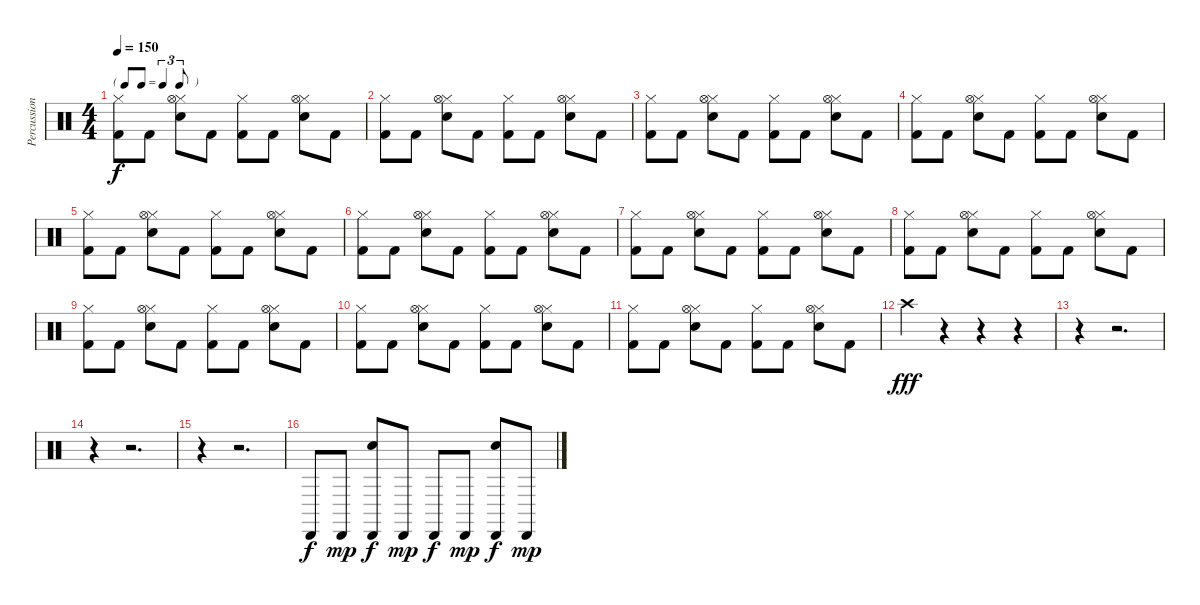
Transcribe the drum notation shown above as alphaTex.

\track ("Percussion" "Percussion") {instrument percussion}
\staff {score}
\articulation defaults
\ts (4 4)
\tf triplet8th
\tempo 150
\clef neutral
\ks c
("Hi-Hat (closed)" "Kick (hit) 2").8{dy f} "Kick (hit) 2".8 ("Hi-Hat (closed)" "Snare (hit) 2" "Hi-Hat (open)").8 "Kick (hit) 2".8 ("Hi-Hat (closed)" "Kick (hit) 2").8 "Kick (hit) 2".8 ("Hi-Hat (closed)" "Snare (hit) 2" "Hi-Hat (open)").8 "Kick (hit) 2".8 |
("Hi-Hat (closed)" "Kick (hit) 2").8 "Kick (hit) 2".8 ("Hi-Hat (closed)" "Snare (hit) 2" "Hi-Hat (open)").8 "Kick (hit) 2".8 ("Hi-Hat (closed)" "Kick (hit) 2").8 "Kick (hit) 2".8 ("Hi-Hat (closed)" "Snare (hit) 2" "Hi-Hat (open)").8 "Kick (hit) 2".8 |
("Hi-Hat (closed)" "Kick (hit) 2").8 "Kick (hit) 2".8 ("Hi-Hat (closed)" "Snare (hit) 2" "Hi-Hat (open)").8 "Kick (hit) 2".8 ("Hi-Hat (closed)" "Kick (hit) 2").8 "Kick (hit) 2".8 ("Hi-Hat (closed)" "Snare (hit) 2" "Hi-Hat (open)").8 "Kick (hit) 2".8 |
("Hi-Hat (closed)" "Kick (hit) 2").8 "Kick (hit) 2".8 ("Hi-Hat (closed)" "Snare (hit) 2" "Hi-Hat (open)").8 "Kick (hit) 2".8 ("Hi-Hat (closed)" "Kick (hit) 2").8 "Kick (hit) 2".8 ("Hi-Hat (closed)" "Snare (hit) 2" "Hi-Hat (open)").8 "Kick (hit) 2".8 |
("Hi-Hat (closed)" "Kick (hit) 2").8 "Kick (hit) 2".8 ("Hi-Hat (closed)" "Snare (hit) 2" "Hi-Hat (open)").8 "Kick (hit) 2".8 ("Hi-Hat (closed)" "Kick (hit) 2").8 "Kick (hit) 2".8 ("Hi-Hat (closed)" "Snare (hit) 2" "Hi-Hat (open)").8 "Kick (hit) 2".8 |
("Hi-Hat (closed)" "Kick (hit) 2").8 "Kick (hit) 2".8 ("Hi-Hat (closed)" "Snare (hit) 2" "Hi-Hat (open)").8 "Kick (hit) 2".8 ("Hi-Hat (closed)" "Kick (hit) 2").8 "Kick (hit) 2".8 ("Hi-Hat (closed)" "Snare (hit) 2" "Hi-Hat (open)").8 "Kick (hit) 2".8 |
("Hi-Hat (closed)" "Kick (hit) 2").8 "Kick (hit) 2".8 ("Hi-Hat (closed)" "Snare (hit) 2" "Hi-Hat (open)").8 "Kick (hit) 2".8 ("Hi-Hat (closed)" "Kick (hit) 2").8 "Kick (hit) 2".8 ("Hi-Hat (closed)" "Snare (hit) 2" "Hi-Hat (open)").8 "Kick (hit) 2".8 |
("Hi-Hat (closed)" "Kick (hit) 2").8 "Kick (hit) 2".8 ("Hi-Hat (closed)" "Snare (hit) 2" "Hi-Hat (open)").8 "Kick (hit) 2".8 ("Hi-Hat (closed)" "Kick (hit) 2").8 "Kick (hit) 2".8 ("Hi-Hat (closed)" "Snare (hit) 2" "Hi-Hat (open)").8 "Kick (hit) 2".8 |
("Hi-Hat (closed)" "Kick (hit) 2").8 "Kick (hit) 2".8 ("Hi-Hat (closed)" "Snare (hit) 2" "Hi-Hat (open)").8 "Kick (hit) 2".8 ("Hi-Hat (closed)" "Kick (hit) 2").8 "Kick (hit) 2".8 ("Hi-Hat (closed)" "Snare (hit) 2" "Hi-Hat (open)").8 "Kick (hit) 2".8 |
("Hi-Hat (closed)" "Kick (hit) 2").8 "Kick (hit) 2".8 ("Hi-Hat (closed)" "Snare (hit) 2" "Hi-Hat (open)").8 "Kick (hit) 2".8 ("Hi-Hat (closed)" "Kick (hit) 2").8 "Kick (hit) 2".8 ("Hi-Hat (closed)" "Snare (hit) 2" "Hi-Hat (open)").8 "Kick (hit) 2".8 |
("Hi-Hat (closed)" "Kick (hit) 2").8 "Kick (hit) 2".8 ("Hi-Hat (closed)" "Snare (hit) 2" "Hi-Hat (open)").8 "Kick (hit) 2".8 ("Hi-Hat (closed)" "Kick (hit) 2").8 "Kick (hit) 2".8 ("Hi-Hat (closed)" "Snare (hit) 2" "Hi-Hat (open)").8 "Kick (hit) 2".8 |
"Crash high (hit)".4{dy fff} r.4 r.4 r.4 |
r.4 r.2{d} |
r.4 r.2{d} |
r.4 r.2{d} |
"Cabasa (hit)".8{dy f} "Cabasa (hit)".8{dy mp} ("Cabasa (hit)" "Hand Clap (hit)").8{dy f} "Cabasa (hit)".8{dy mp} "Cabasa (hit)".8{dy f} "Cabasa (hit)".8{dy mp} ("Cabasa (hit)" "Hand Clap (hit)").8{dy f} "Cabasa (hit)".8{dy mp}
